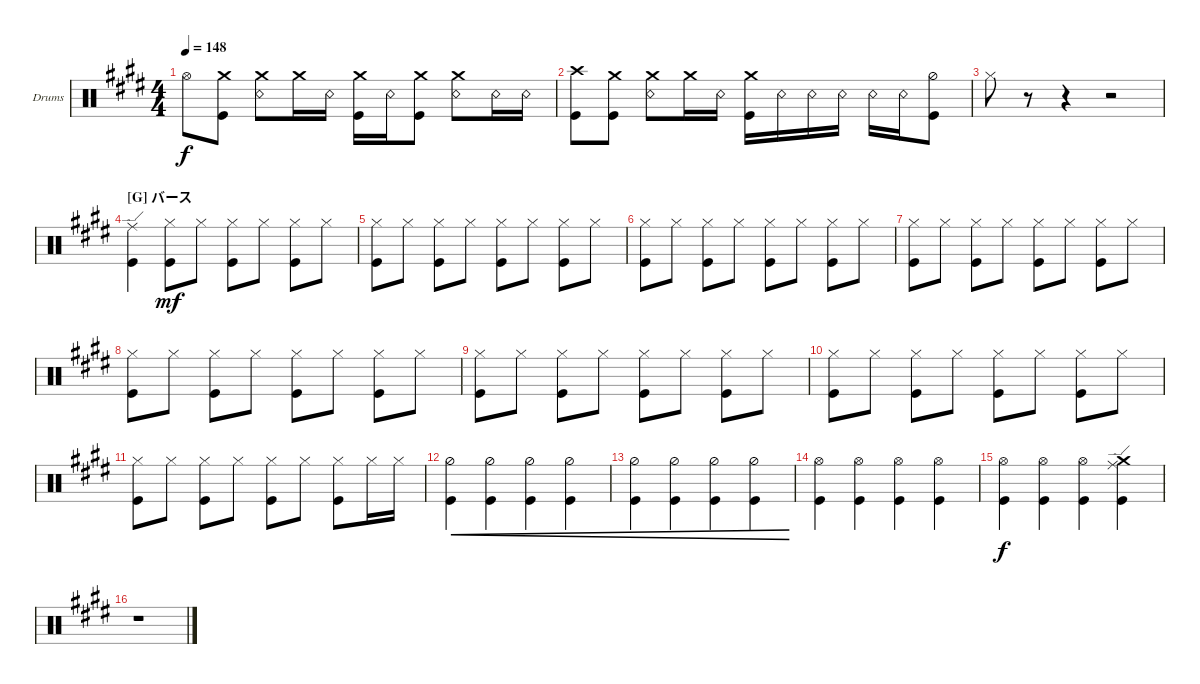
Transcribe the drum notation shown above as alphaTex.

\bracketExtendMode groupsimilarinstruments
\firstSystemTrackNameOrientation horizontal
\otherSystemsTrackNameOrientation horizontal
\track ("Ichigo" "Drums") {instrument percussion}
\staff {score}
\articulation defaults
\ts (4 4)
\tempo 148
\clef neutral
\ks e "Hi-Hat (open)"{t}.8{dy f}
("Kick (hit)" "Crash medium (hit)").8 ("Snare (rim shot)" "Crash medium (hit)").8 "Crash medium (hit)".16 "Snare (rim shot)".16 ("Kick (hit)" "Crash medium (hit)").16 "Snare (rim shot)".16 ("Kick (hit)" "Crash medium (hit)").8 ("Snare (rim shot)" "Crash medium (hit)").8 "Snare (rim shot)".16 "Snare (rim shot)".16 |
("Kick (hit)" "Crash high (hit)").8 ("Kick (hit)" "Crash medium (hit)").8 ("Snare (rim shot)" "Crash medium (hit)").8 "Crash medium (hit)".16 "Snare (rim shot)".16 ("Kick (hit)" "Crash medium (hit)").16 "Snare (rim shot)".16 "Snare (rim shot)".16 "Snare (rim shot)".16 "Snare (rim shot)".16 "Snare (rim shot)".16 ("Kick (hit)" "Hi-Hat (half)").8 |
"Hi-Hat (closed)".8 r.8 r.4 r.2 |
\section ("G" "バース")
("Kick (hit)" "Ride (edge)").4 ("Hi-Hat (closed)" "Kick (hit)").8{dy mf} "Hi-Hat (closed)".8 ("Hi-Hat (closed)" "Kick (hit)").8 "Hi-Hat (closed)".8 ("Hi-Hat (closed)" "Kick (hit)").8 "Hi-Hat (closed)".8 |
("Hi-Hat (closed)" "Kick (hit)").8 "Hi-Hat (closed)".8 ("Hi-Hat (closed)" "Kick (hit)").8 "Hi-Hat (closed)".8 ("Hi-Hat (closed)" "Kick (hit)").8 "Hi-Hat (closed)".8 ("Hi-Hat (closed)" "Kick (hit)").8 "Hi-Hat (closed)".8 |
("Hi-Hat (closed)" "Kick (hit)").8 "Hi-Hat (closed)".8 ("Hi-Hat (closed)" "Kick (hit)").8 "Hi-Hat (closed)".8 ("Hi-Hat (closed)" "Kick (hit)").8 "Hi-Hat (closed)".8 ("Hi-Hat (closed)" "Kick (hit)").8 "Hi-Hat (closed)".8 |
("Hi-Hat (closed)" "Kick (hit)").8 "Hi-Hat (closed)".8 ("Hi-Hat (closed)" "Kick (hit)").8 "Hi-Hat (closed)".8 ("Hi-Hat (closed)" "Kick (hit)").8 "Hi-Hat (closed)".8 ("Hi-Hat (closed)" "Kick (hit)").8 "Hi-Hat (closed)".8 |
("Hi-Hat (closed)" "Kick (hit)").8 "Hi-Hat (closed)".8 ("Hi-Hat (closed)" "Kick (hit)").8 "Hi-Hat (closed)".8 ("Hi-Hat (closed)" "Kick (hit)").8 "Hi-Hat (closed)".8 ("Hi-Hat (closed)" "Kick (hit)").8 "Hi-Hat (closed)".8 |
("Hi-Hat (closed)" "Kick (hit)").8 "Hi-Hat (closed)".8 ("Hi-Hat (closed)" "Kick (hit)").8 "Hi-Hat (closed)".8 ("Hi-Hat (closed)" "Kick (hit)").8 "Hi-Hat (closed)".8 ("Hi-Hat (closed)" "Kick (hit)").8 "Hi-Hat (closed)".8 |
("Hi-Hat (closed)" "Kick (hit)").8 "Hi-Hat (closed)".8 ("Hi-Hat (closed)" "Kick (hit)").8 "Hi-Hat (closed)".8 ("Hi-Hat (closed)" "Kick (hit)").8 "Hi-Hat (closed)".8 ("Hi-Hat (closed)" "Kick (hit)").8 "Hi-Hat (closed)".8 |
("Hi-Hat (closed)" "Kick (hit)").8 "Hi-Hat (closed)".8 ("Hi-Hat (closed)" "Kick (hit)").8 "Hi-Hat (closed)".8 ("Hi-Hat (closed)" "Kick (hit)").8 "Hi-Hat (closed)".8 ("Hi-Hat (closed)" "Kick (hit)").8 "Hi-Hat (closed)".16 "Hi-Hat (closed)".16 |
("Hi-Hat (half)" "Kick (hit)").4{cre} ("Hi-Hat (half)" "Kick (hit)").4{cre} ("Hi-Hat (half)" "Kick (hit)").4{cre} ("Hi-Hat (half)" "Kick (hit)").4{cre} |
("Hi-Hat (half)" "Kick (hit)").4{cre} ("Hi-Hat (half)" "Kick (hit)").4{cre} ("Hi-Hat (half)" "Kick (hit)").4{cre} ("Hi-Hat (half)" "Kick (hit)").4{cre} |
("Hi-Hat (open)" "Kick (hit)").4 ("Hi-Hat (open)" "Kick (hit)").4 ("Hi-Hat (open)" "Kick (hit)").4 ("Hi-Hat (open)" "Kick (hit)").4 |
("Hi-Hat (open)" "Kick (hit)").4{dy f} ("Hi-Hat (open)" "Kick (hit)").4 ("Hi-Hat (open)" "Kick (hit)").4 ("Kick (hit)" "Ride (edge)" "Crash medium (hit)").4 |
r.1
